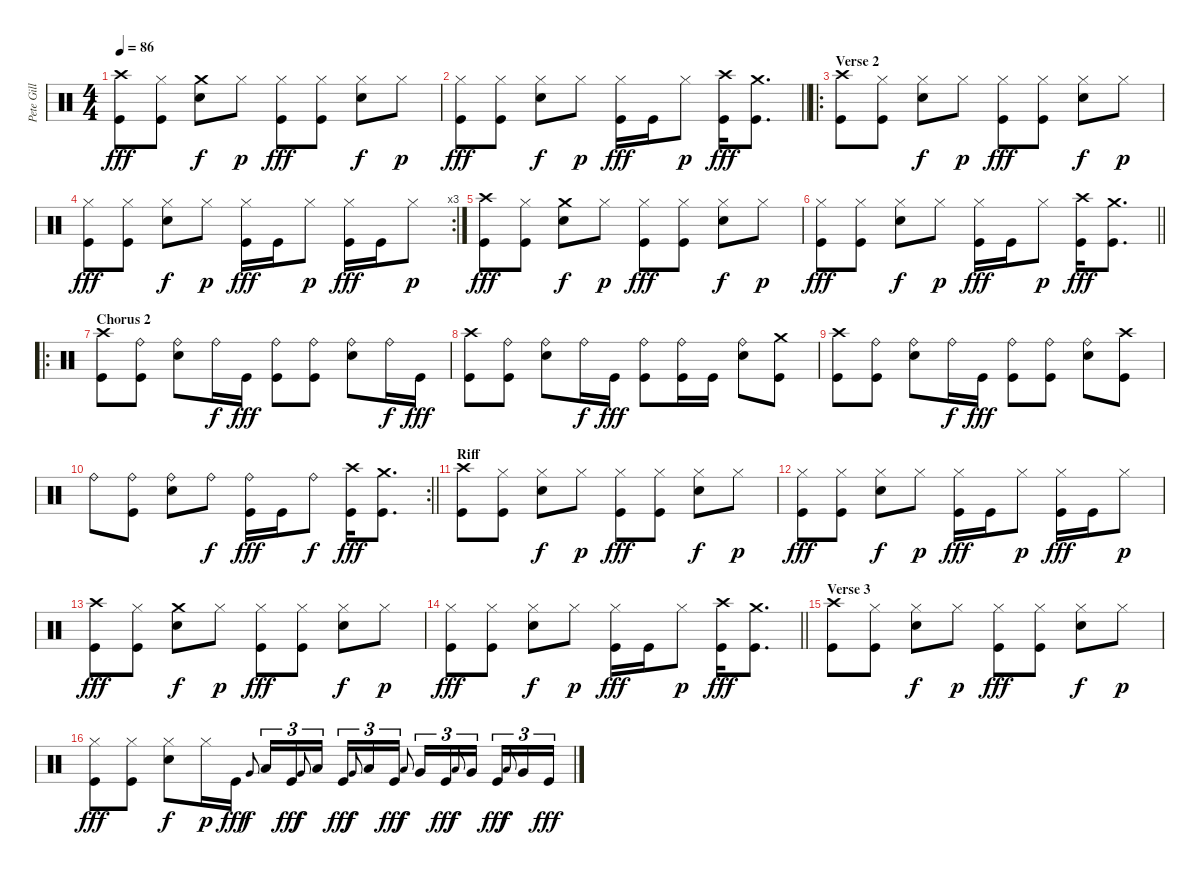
\track ("Pete Gill" "Pete Gill") {instrument percussion}
\staff {score}
\articulation defaults
\ts (4 4)
\tempo 86
\clef neutral
\ks c
("Crash high (hit)" "Kick (hit)").8{dy fff} ("Hi-Hat (closed)" "Kick (hit)").8 ("Crash medium (hit)" "Electric Snare (hit)").8{dy f} "Hi-Hat (closed)".8{dy p} ("Hi-Hat (closed)" "Kick (hit)").8{dy fff} ("Hi-Hat (closed)" "Kick (hit)").8 ("Hi-Hat (closed)" "Electric Snare (hit)").8{dy f} "Hi-Hat (closed)".8{dy p} |
\barLineRight lightlight
("Hi-Hat (closed)" "Kick (hit)").8{dy fff} ("Hi-Hat (closed)" "Kick (hit)").8 ("Hi-Hat (closed)" "Electric Snare (hit)").8{dy f} "Hi-Hat (closed)".8{dy p} ("Hi-Hat (closed)" "Kick (hit)").16{dy fff} "Kick (hit)".16 "Hi-Hat (closed)".8{dy p} ("Crash high (hit)" "Kick (hit)").16{dy fff} ("Crash medium (hit)" "Kick (hit)").8{d} |
\ro
\section ("" "Verse 2")
("Crash high (hit)" "Kick (hit)").8 ("Hi-Hat (closed)" "Kick (hit)").8 ("Hi-Hat (closed)" "Electric Snare (hit)").8{dy f} "Hi-Hat (closed)".8{dy p} ("Hi-Hat (closed)" "Kick (hit)").8{dy fff} ("Hi-Hat (closed)" "Kick (hit)").8 ("Hi-Hat (closed)" "Electric Snare (hit)").8{dy f} "Hi-Hat (closed)".8{dy p} |
\rc 3
("Hi-Hat (closed)" "Kick (hit)").8{dy fff} ("Hi-Hat (closed)" "Kick (hit)").8 ("Hi-Hat (closed)" "Electric Snare (hit)").8{dy f} "Hi-Hat (closed)".8{dy p} ("Hi-Hat (closed)" "Kick (hit)").16{dy fff} "Kick (hit)".16 "Hi-Hat (closed)".8{dy p} ("Hi-Hat (closed)" "Kick (hit)").16{dy fff} "Kick (hit)".16 "Hi-Hat (closed)".8{dy p} |
("Crash high (hit)" "Kick (hit)").8{dy fff} ("Hi-Hat (closed)" "Kick (hit)").8 ("Crash medium (hit)" "Electric Snare (hit)").8{dy f} "Hi-Hat (closed)".8{dy p} ("Hi-Hat (closed)" "Kick (hit)").8{dy fff} ("Hi-Hat (closed)" "Kick (hit)").8 ("Hi-Hat (closed)" "Electric Snare (hit)").8{dy f} "Hi-Hat (closed)".8{dy p} |
\barLineRight lightlight
("Hi-Hat (closed)" "Kick (hit)").8{dy fff} ("Hi-Hat (closed)" "Kick (hit)").8 ("Hi-Hat (closed)" "Electric Snare (hit)").8{dy f} "Hi-Hat (closed)".8{dy p} ("Hi-Hat (closed)" "Kick (hit)").16{dy fff} "Kick (hit)".16 "Hi-Hat (closed)".8{dy p} ("Crash high (hit)" "Kick (hit)").16{dy fff} ("Crash medium (hit)" "Kick (hit)").8{d} |
\ro
\section ("" "Chorus 2")
("Crash high (hit)" "Kick (hit)").8 ("Ride (bell)" "Kick (hit)").8 ("Ride (bell)" "Electric Snare (hit)").8 "Ride (bell)".16{dy f} "Kick (hit)".16{dy fff} ("Ride (bell)" "Kick (hit)").8 ("Ride (bell)" "Kick (hit)").8 ("Ride (bell)" "Electric Snare (hit)").8 "Ride (bell)".16{dy f} "Kick (hit)".16{dy fff} |
("Crash high (hit)" "Kick (hit)").8 ("Ride (bell)" "Kick (hit)").8 ("Ride (bell)" "Electric Snare (hit)").8 "Ride (bell)".16{dy f} "Kick (hit)".16{dy fff} ("Ride (bell)" "Kick (hit)").8 ("Ride (bell)" "Kick (hit)").16 "Kick (hit)".16 ("Ride (bell)" "Electric Snare (hit)").8 ("Crash medium (hit)" "Kick (hit)").8 |
("Crash high (hit)" "Kick (hit)").8 ("Ride (bell)" "Kick (hit)").8 ("Ride (bell)" "Electric Snare (hit)").8 "Ride (bell)".16{dy f} "Kick (hit)".16{dy fff} ("Ride (bell)" "Kick (hit)").8 ("Ride (bell)" "Kick (hit)").8 ("Ride (bell)" "Electric Snare (hit)").8 ("Crash high (hit)" "Kick (hit)").8 |
\rc 2
\barLineRight lightlight "Ride (bell)".8
("Ride (bell)" "Kick (hit)").8 ("Ride (bell)" "Electric Snare (hit)").8 "Ride (bell)".8{dy f} ("Ride (bell)" "Kick (hit)").16{dy fff} "Kick (hit)".16 "Ride (bell)".8{dy f} ("Crash high (hit)" "Kick (hit)").16{dy fff} ("Crash medium (hit)" "Kick (hit)").8{d} |
\section ("" "Riff")
("Crash high (hit)" "Kick (hit)").8 ("Hi-Hat (closed)" "Kick (hit)").8 ("Hi-Hat (closed)" "Electric Snare (hit)").8{dy f} "Hi-Hat (closed)".8{dy p} ("Hi-Hat (closed)" "Kick (hit)").8{dy fff} ("Hi-Hat (closed)" "Kick (hit)").8 ("Hi-Hat (closed)" "Electric Snare (hit)").8{dy f} "Hi-Hat (closed)".8{dy p} |
("Hi-Hat (closed)" "Kick (hit)").8{dy fff} ("Hi-Hat (closed)" "Kick (hit)").8 ("Hi-Hat (closed)" "Electric Snare (hit)").8{dy f} "Hi-Hat (closed)".8{dy p} ("Hi-Hat (closed)" "Kick (hit)").16{dy fff} "Kick (hit)".16 "Hi-Hat (closed)".8{dy p} ("Hi-Hat (closed)" "Kick (hit)").16{dy fff} "Kick (hit)".16 "Hi-Hat (closed)".8{dy p} |
("Crash high (hit)" "Kick (hit)").8{dy fff} ("Hi-Hat (closed)" "Kick (hit)").8 ("Crash medium (hit)" "Electric Snare (hit)").8{dy f} "Hi-Hat (closed)".8{dy p} ("Hi-Hat (closed)" "Kick (hit)").8{dy fff} ("Hi-Hat (closed)" "Kick (hit)").8 ("Hi-Hat (closed)" "Electric Snare (hit)").8{dy f} "Hi-Hat (closed)".8{dy p} |
\barLineRight lightlight
("Hi-Hat (closed)" "Kick (hit)").8{dy fff} ("Hi-Hat (closed)" "Kick (hit)").8 ("Hi-Hat (closed)" "Electric Snare (hit)").8{dy f} "Hi-Hat (closed)".8{dy p} ("Hi-Hat (closed)" "Kick (hit)").16{dy fff} "Kick (hit)".16 "Hi-Hat (closed)".8{dy p} ("Crash high (hit)" "Kick (hit)").16{dy fff} ("Crash medium (hit)" "Kick (hit)").8{d} |
\section ("" "Verse 3")
("Crash high (hit)" "Kick (hit)").8 ("Hi-Hat (closed)" "Kick (hit)").8 ("Hi-Hat (closed)" "Electric Snare (hit)").8{dy f} "Hi-Hat (closed)".8{dy p} ("Hi-Hat (closed)" "Kick (hit)").8{dy fff} ("Hi-Hat (closed)" "Kick (hit)").8 ("Hi-Hat (closed)" "Electric Snare (hit)").8{dy f} "Hi-Hat (closed)".8{dy p} |
("Hi-Hat (closed)" "Kick (hit)").8{dy fff} ("Hi-Hat (closed)" "Kick (hit)").8 ("Hi-Hat (closed)" "Electric Snare (hit)").8{dy f} "Hi-Hat (closed)".16{dy p} "Kick (hit)".16{dy fff} "Very Low Tom (hit)".8{gr onbeat dy f} "Low Tom (hit)".16{tu (3 2)} "Kick (hit)".16{tu (3 2) dy fff} "Very Low Tom (hit)".8{gr onbeat dy f} "Low Tom (hit)".16{tu (3 2) beam splitsecondary} "Kick (hit)".16{tu (3 2) dy fff} "Very Low Tom (hit)".8{gr onbeat dy f} "Low Tom (hit)".16{tu (3 2)} "Kick (hit)".16{tu (3 2) dy fff} "Low Floor Tom (hit)".8{gr onbeat dy f} "Very Low Tom (hit)".16{tu (3 2)} "Kick (hit)".16{tu (3 2) dy fff} "Low Floor Tom (hit)".8{gr onbeat dy f} "Very Low Tom (hit)".16{tu (3 2) beam splitsecondary} "Kick (hit)".16{tu (3 2) dy fff} "Low Floor Tom (hit)".8{gr onbeat dy f} "Very Low Tom (hit)".16{tu (3 2)} "Kick (hit)".16{tu (3 2) dy fff}
